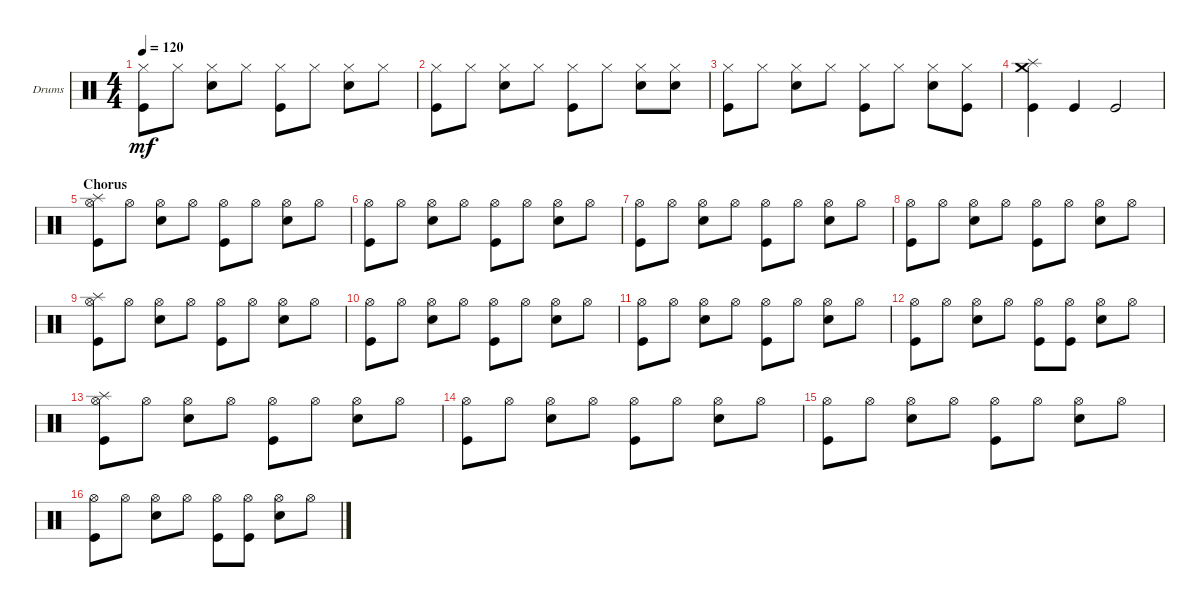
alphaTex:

\defaultSystemsLayout 4
\bracketExtendMode groupsimilarinstruments
\firstSystemTrackNameOrientation horizontal
\otherSystemsTrackNameOrientation horizontal
\track ("Drumkit" "Drums") {instrument percussion}
\staff {score}
\articulation defaults
\ts (4 4)
\tempo 120
\clef neutral
\ks c
("Hi-Hat (closed)" "Kick (hit)").8{dy mf} "Hi-Hat (closed)".8 ("Hi-Hat (closed)" "Snare (hit) 2").8 "Hi-Hat (closed)".8 ("Hi-Hat (closed)" "Kick (hit)").8 "Hi-Hat (closed)".8 ("Hi-Hat (closed)" "Snare (hit) 2").8 "Hi-Hat (closed)".8 |
("Kick (hit)" "Hi-Hat (closed)").8 "Hi-Hat (closed)".8 ("Hi-Hat (closed)" "Snare (hit) 2").8 "Hi-Hat (closed)".8 ("Hi-Hat (closed)" "Kick (hit)").8 "Hi-Hat (closed)".8 ("Hi-Hat (closed)" "Snare (hit) 2").8 ("Hi-Hat (closed)" "Snare (hit) 2").8 |
("Hi-Hat (closed)" "Kick (hit)").8 "Hi-Hat (closed)".8 ("Hi-Hat (closed)" "Snare (hit) 2").8 "Hi-Hat (closed)".8 ("Hi-Hat (closed)" "Kick (hit)").8 "Hi-Hat (closed)".8 ("Hi-Hat (closed)" "Snare (hit) 2").8 ("Hi-Hat (closed)" "Kick (hit)").8 |
("Splash (hit)" "Crash medium (hit)" "Kick (hit)").4 "Kick (hit)".4 "Kick (hit)".2 |
\section ("" "Chorus")
("Kick (hit)" "Hi-Hat (open)" "Splash (hit)").8 "Hi-Hat (open)".8 ("Hi-Hat (open)" "Snare (hit) 2").8 "Hi-Hat (open)".8 ("Hi-Hat (open)" "Kick (hit)").8 "Hi-Hat (open)".8 ("Hi-Hat (open)" "Snare (hit) 2").8 "Hi-Hat (open)".8 |
("Kick (hit)" "Hi-Hat (open)").8 "Hi-Hat (open)".8 ("Hi-Hat (open)" "Snare (hit) 2").8 "Hi-Hat (open)".8 ("Hi-Hat (open)" "Kick (hit)").8 "Hi-Hat (open)".8 ("Hi-Hat (open)" "Snare (hit) 2").8 "Hi-Hat (open)".8 |
("Kick (hit)" "Hi-Hat (open)").8 "Hi-Hat (open)".8 ("Hi-Hat (open)" "Snare (hit) 2").8 "Hi-Hat (open)".8 ("Hi-Hat (open)" "Kick (hit)").8 "Hi-Hat (open)".8 ("Hi-Hat (open)" "Snare (hit) 2").8 "Hi-Hat (open)".8 |
("Kick (hit)" "Hi-Hat (open)").8 "Hi-Hat (open)".8 ("Hi-Hat (open)" "Snare (hit) 2").8 "Hi-Hat (open)".8 ("Hi-Hat (open)" "Kick (hit)").8 "Hi-Hat (open)".8 ("Hi-Hat (open)" "Snare (hit) 2").8 "Hi-Hat (open)".8 |
("Kick (hit)" "Hi-Hat (open)" "Splash (hit)").8 "Hi-Hat (open)".8 ("Hi-Hat (open)" "Snare (hit) 2").8 "Hi-Hat (open)".8 ("Hi-Hat (open)" "Kick (hit)").8 "Hi-Hat (open)".8 ("Hi-Hat (open)" "Snare (hit) 2").8 "Hi-Hat (open)".8 |
("Kick (hit)" "Hi-Hat (open)").8 "Hi-Hat (open)".8 ("Hi-Hat (open)" "Snare (hit) 2").8 "Hi-Hat (open)".8 ("Hi-Hat (open)" "Kick (hit)").8 "Hi-Hat (open)".8 ("Hi-Hat (open)" "Snare (hit) 2").8 "Hi-Hat (open)".8 |
("Kick (hit)" "Hi-Hat (open)").8 "Hi-Hat (open)".8 ("Hi-Hat (open)" "Snare (hit) 2").8 "Hi-Hat (open)".8 ("Hi-Hat (open)" "Kick (hit)").8 "Hi-Hat (open)".8 ("Hi-Hat (open)" "Snare (hit) 2").8 "Hi-Hat (open)".8 |
("Kick (hit)" "Hi-Hat (open)").8 "Hi-Hat (open)".8 ("Hi-Hat (open)" "Snare (hit) 2").8 "Hi-Hat (open)".8 ("Hi-Hat (open)" "Kick (hit)").8 ("Hi-Hat (open)" "Kick (hit)").8 ("Hi-Hat (open)" "Snare (hit) 2").8 "Hi-Hat (open)".8 |
("Kick (hit)" "Hi-Hat (open)" "Splash (hit)").8 "Hi-Hat (open)".8 ("Hi-Hat (open)" "Snare (hit) 2").8 "Hi-Hat (open)".8 ("Hi-Hat (open)" "Kick (hit)").8 "Hi-Hat (open)".8 ("Hi-Hat (open)" "Snare (hit) 2").8 "Hi-Hat (open)".8 |
("Kick (hit)" "Hi-Hat (open)").8 "Hi-Hat (open)".8 ("Hi-Hat (open)" "Snare (hit) 2").8 "Hi-Hat (open)".8 ("Hi-Hat (open)" "Kick (hit)").8 "Hi-Hat (open)".8 ("Hi-Hat (open)" "Snare (hit) 2").8 "Hi-Hat (open)".8 |
("Kick (hit)" "Hi-Hat (open)").8 "Hi-Hat (open)".8 ("Hi-Hat (open)" "Snare (hit) 2").8 "Hi-Hat (open)".8 ("Hi-Hat (open)" "Kick (hit)").8 "Hi-Hat (open)".8 ("Hi-Hat (open)" "Snare (hit) 2").8 "Hi-Hat (open)".8 |
("Kick (hit)" "Hi-Hat (open)").8 "Hi-Hat (open)".8 ("Hi-Hat (open)" "Snare (hit) 2").8 "Hi-Hat (open)".8 ("Hi-Hat (open)" "Kick (hit)").8 ("Hi-Hat (open)" "Kick (hit)").8 ("Hi-Hat (open)" "Snare (hit) 2").8 "Hi-Hat (open)".8
